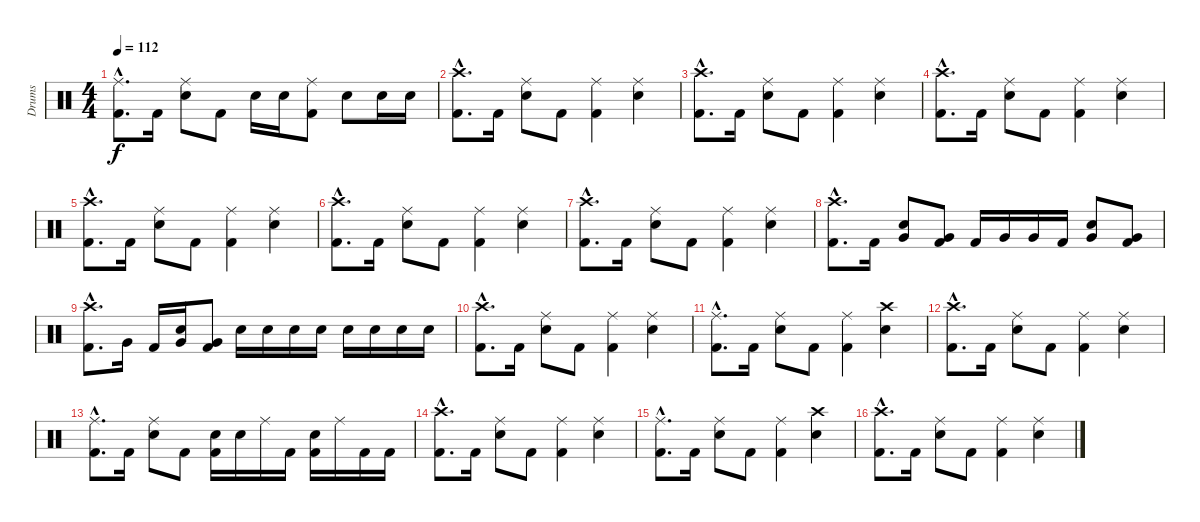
\track ("Drums" "Drums") {instrument percussion}
\staff {score}
\articulation defaults
\ts (4 4)
\tempo 112
\clef neutral
\ks c
("Ride (middle)"{hac} "Kick (hit) 2"{hac}).8{d dy f} "Kick (hit) 2".16 ("Ride (middle)" "Electric Snare (hit)").8 "Kick (hit) 2".8 "Electric Snare (hit)".16 "Electric Snare (hit)".16 ("Ride (middle)" "Kick (hit) 2").8 "Electric Snare (hit)".8 "Electric Snare (hit)".16 "Electric Snare (hit)".16 |
("Crash high (hit)"{hac} "Kick (hit) 2"{hac}).8{d} "Kick (hit) 2".16 ("Ride (middle)" "Electric Snare (hit)").8 "Kick (hit) 2".8 ("Ride (middle)" "Kick (hit) 2").4 ("Ride (middle)" "Electric Snare (hit)").4 |
("Crash high (hit)"{hac} "Kick (hit) 2"{hac}).8{d} "Kick (hit) 2".16 ("Ride (middle)" "Electric Snare (hit)").8 "Kick (hit) 2".8 ("Ride (middle)" "Kick (hit) 2").4 ("Ride (middle)" "Electric Snare (hit)").4 |
("Crash high (hit)"{hac} "Kick (hit) 2"{hac}).8{d} "Kick (hit) 2".16 ("Ride (middle)" "Electric Snare (hit)").8 "Kick (hit) 2".8 ("Ride (middle)" "Kick (hit) 2").4 ("Ride (middle)" "Electric Snare (hit)").4 |
("Crash high (hit)"{hac} "Kick (hit) 2"{hac}).8{d} "Kick (hit) 2".16 ("Ride (middle)" "Electric Snare (hit)").8 "Kick (hit) 2".8 ("Ride (middle)" "Kick (hit) 2").4 ("Ride (middle)" "Electric Snare (hit)").4 |
("Crash high (hit)"{hac} "Kick (hit) 2"{hac}).8{d} "Kick (hit) 2".16 ("Ride (middle)" "Electric Snare (hit)").8 "Kick (hit) 2".8 ("Ride (middle)" "Kick (hit) 2").4 ("Ride (middle)" "Electric Snare (hit)").4 |
("Crash high (hit)"{hac} "Kick (hit) 2"{hac}).8{d} "Kick (hit) 2".16 ("Ride (middle)" "Electric Snare (hit)").8 "Kick (hit) 2".8 ("Ride (middle)" "Kick (hit) 2").4 ("Ride (middle)" "Electric Snare (hit)").4 |
("Crash high (hit)"{hac} "Kick (hit) 2"{hac}).8{d} "Kick (hit) 2".16 ("Electric Snare (hit)" "Very Low Tom (hit)").8 ("Very Low Tom (hit)" "Kick (hit) 2").8 "Kick (hit) 2".16 "Very Low Tom (hit)".16 "Very Low Tom (hit)".16 "Kick (hit) 2".16 ("Electric Snare (hit)" "Very Low Tom (hit)").8 ("Very Low Tom (hit)" "Kick (hit) 2").8 |
("Crash high (hit)"{hac} "Kick (hit) 2"{hac}).8{d} "Very Low Tom (hit)".16 "Kick (hit) 2".16 ("Electric Snare (hit)" "Very Low Tom (hit)").16 ("Very Low Tom (hit)" "Kick (hit) 2").8 "Electric Snare (hit)".16 "Electric Snare (hit)".16 "Electric Snare (hit)".16 "Electric Snare (hit)".16 "Electric Snare (hit)".16 "Electric Snare (hit)".16 "Electric Snare (hit)".16 "Electric Snare (hit)".16 |
("Crash high (hit)"{hac} "Kick (hit) 2"{hac}).8{d} "Kick (hit) 2".16 ("Ride (middle)" "Electric Snare (hit)").8 "Kick (hit) 2".8 ("Ride (middle)" "Kick (hit) 2").4 ("Ride (middle)" "Electric Snare (hit)").4 |
("Ride (middle)"{hac} "Kick (hit) 2"{hac}).8{d} "Kick (hit) 2".16 ("Ride (middle)" "Electric Snare (hit)").8 "Kick (hit) 2".8 ("Ride (middle)" "Kick (hit) 2").4 ("Crash high (hit)" "Electric Snare (hit)").4 |
("Crash high (hit)"{hac} "Kick (hit) 2"{hac}).8{d} "Kick (hit) 2".16 ("Ride (middle)" "Electric Snare (hit)").8 "Kick (hit) 2".8 ("Ride (middle)" "Kick (hit) 2").4 ("Ride (middle)" "Electric Snare (hit)").4 |
("Ride (middle)"{hac} "Kick (hit) 2"{hac}).8{d} "Kick (hit) 2".16 ("Ride (middle)" "Electric Snare (hit)").8 "Kick (hit) 2".8 ("Electric Snare (hit)" "Kick (hit) 2").16 "Electric Snare (hit)".16 "Ride (middle)".16 "Kick (hit) 2".16 ("Electric Snare (hit)" "Kick (hit) 2").16 "Ride (middle)".16 "Kick (hit) 2".16 "Kick (hit) 2".16 |
("Crash high (hit)"{hac} "Kick (hit) 2"{hac}).8{d} "Kick (hit) 2".16 ("Ride (middle)" "Electric Snare (hit)").8 "Kick (hit) 2".8 ("Ride (middle)" "Kick (hit) 2").4 ("Ride (middle)" "Electric Snare (hit)").4 |
("Ride (middle)"{hac} "Kick (hit) 2"{hac}).8{d} "Kick (hit) 2".16 ("Ride (middle)" "Electric Snare (hit)").8 "Kick (hit) 2".8 ("Ride (middle)" "Kick (hit) 2").4 ("Crash high (hit)" "Electric Snare (hit)").4 |
("Crash high (hit)"{hac} "Kick (hit) 2"{hac}).8{d} "Kick (hit) 2".16 ("Ride (middle)" "Electric Snare (hit)").8 "Kick (hit) 2".8 ("Ride (middle)" "Kick (hit) 2").4 ("Ride (middle)" "Electric Snare (hit)").4
